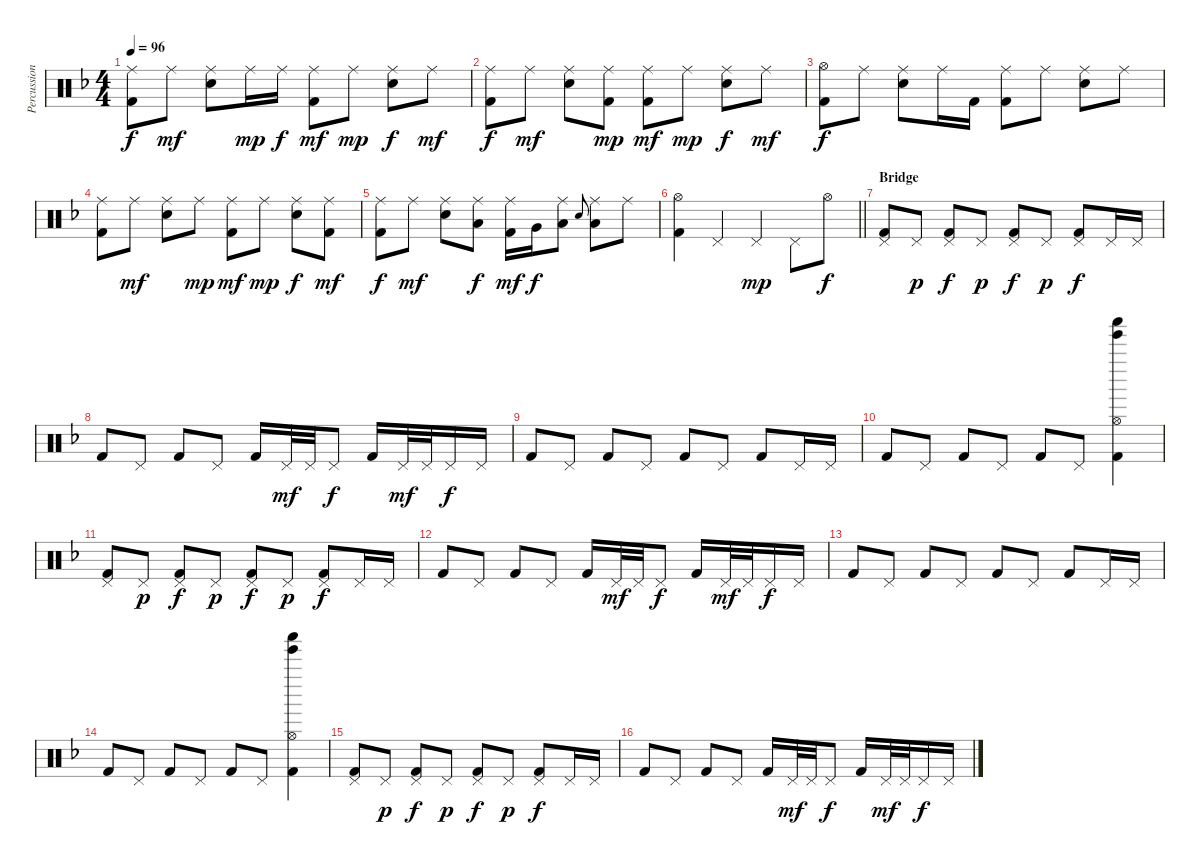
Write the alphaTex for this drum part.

\track ("Percussion" "Percussion") {instrument percussion}
\staff {score}
\articulation defaults
\ts (4 4)
\tempo 96
\clef neutral
\ks dminor
("Ride (middle)" "Kick (hit) 2").8{dy f} "Ride (middle)".8{dy mf} ("Ride (middle)" "Electric Snare (hit)").8 "Ride (middle)".16{dy mp} "Ride (middle)".16{dy f} ("Ride (middle)" "Kick (hit) 2").8{dy mf} "Ride (middle)".8{dy mp} ("Ride (middle)" "Electric Snare (hit)").8{dy f} "Ride (middle)".8{dy mf} |
("Ride (middle)" "Kick (hit) 2").8{dy f} "Ride (middle)".8{dy mf} ("Ride (middle)" "Electric Snare (hit)").8 ("Ride (middle)" "Kick (hit) 2").8{dy mp} ("Ride (middle)" "Kick (hit) 2").8{dy mf} "Ride (middle)".8{dy mp} ("Ride (middle)" "Electric Snare (hit)").8{dy f} "Ride (middle)".8{dy mf} |
("Hi-Hat (open)" "Kick (hit) 2").8{dy f} "Ride (middle)".8 ("Ride (middle)" "Electric Snare (hit)").8 "Ride (middle)".16 "Kick (hit) 2".16 ("Ride (middle)" "Kick (hit) 2").8 "Ride (middle)".8 ("Ride (middle)" "Electric Snare (hit)").8 "Ride (middle)".8 |
("Ride (middle)" "Kick (hit) 2").8 "Ride (middle)".8{dy mf} ("Ride (middle)" "Electric Snare (hit)").8 "Ride (middle)".8{dy mp} ("Ride (middle)" "Kick (hit) 2").8{dy mf} "Ride (middle)".8{dy mp} ("Ride (middle)" "Electric Snare (hit)").8{dy f} ("Ride (middle)" "Kick (hit) 2").8{dy mf} |
("Ride (middle)" "Kick (hit) 2").8{dy f} "Ride (middle)".8{dy mf} ("Ride (middle)" "Electric Snare (hit)").8 ("Ride (middle)" "Low Floor Tom (hit)").8{dy f} ("Ride (middle)" "Kick (hit) 2").16{dy mf} "Very Low Tom (hit)".16{dy f} ("Ride (middle)" "Low Floor Tom (hit)").8 "Electric Snare (hit)".8{gr onbeat} ("Ride (middle)" "Low Floor Tom (hit)").8 "Ride (middle)".8 |
\barLineRight lightlight
("Hi-Hat (open)" "Kick (hit) 2").4 "Pedal Hi-Hat (hit)".4 "Pedal Hi-Hat (hit)".4{dy mp} "Pedal Hi-Hat (hit)".8 "Hi-Hat (open)".8{dy f} |
\section ("" "Bridge")
("Pedal Hi-Hat (hit)" "Kick (hit) 2").8 "Pedal Hi-Hat (hit)".8{dy p} ("Pedal Hi-Hat (hit)" "Kick (hit) 2").8{dy f} "Pedal Hi-Hat (hit)".8{dy p} ("Pedal Hi-Hat (hit)" "Kick (hit) 2").8{dy f} "Pedal Hi-Hat (hit)".8{dy p} ("Pedal Hi-Hat (hit)" "Kick (hit) 2").8{dy f} "Pedal Hi-Hat (hit)".16 "Pedal Hi-Hat (hit)".16 |
"Kick (hit) 2".8 "Pedal Hi-Hat (hit)".8 "Kick (hit) 2".8 "Pedal Hi-Hat (hit)".8 "Kick (hit) 2".16 "Pedal Hi-Hat (hit)".32{dy mf} "Pedal Hi-Hat (hit)".32 "Pedal Hi-Hat (hit)".8{dy f} "Kick (hit) 2".16 "Pedal Hi-Hat (hit)".32{dy mf} "Pedal Hi-Hat (hit)".32 "Pedal Hi-Hat (hit)".16{dy f} "Pedal Hi-Hat (hit)".16 |
"Kick (hit) 2".8 "Pedal Hi-Hat (hit)".8 "Kick (hit) 2".8 "Pedal Hi-Hat (hit)".8 "Kick (hit) 2".8 "Pedal Hi-Hat (hit)".8 "Kick (hit) 2".8 "Pedal Hi-Hat (hit)".16 "Pedal Hi-Hat (hit)".16 |
"Kick (hit) 2".8 "Pedal Hi-Hat (hit)".8 "Kick (hit) 2".8 "Pedal Hi-Hat (hit)".8 "Kick (hit) 2".8 "Pedal Hi-Hat (hit)".8 ("Hi-Hat (open)" "Tinkle Bell (hit)" "Shaker (hit)" "Kick (hit) 2").4 |
("Pedal Hi-Hat (hit)" "Kick (hit) 2").8 "Pedal Hi-Hat (hit)".8{dy p} ("Pedal Hi-Hat (hit)" "Kick (hit) 2").8{dy f} "Pedal Hi-Hat (hit)".8{dy p} ("Pedal Hi-Hat (hit)" "Kick (hit) 2").8{dy f} "Pedal Hi-Hat (hit)".8{dy p} ("Pedal Hi-Hat (hit)" "Kick (hit) 2").8{dy f} "Pedal Hi-Hat (hit)".16 "Pedal Hi-Hat (hit)".16 |
"Kick (hit) 2".8 "Pedal Hi-Hat (hit)".8 "Kick (hit) 2".8 "Pedal Hi-Hat (hit)".8 "Kick (hit) 2".16 "Pedal Hi-Hat (hit)".32{dy mf} "Pedal Hi-Hat (hit)".32 "Pedal Hi-Hat (hit)".8{dy f} "Kick (hit) 2".16 "Pedal Hi-Hat (hit)".32{dy mf} "Pedal Hi-Hat (hit)".32 "Pedal Hi-Hat (hit)".16{dy f} "Pedal Hi-Hat (hit)".16 |
"Kick (hit) 2".8 "Pedal Hi-Hat (hit)".8 "Kick (hit) 2".8 "Pedal Hi-Hat (hit)".8 "Kick (hit) 2".8 "Pedal Hi-Hat (hit)".8 "Kick (hit) 2".8 "Pedal Hi-Hat (hit)".16 "Pedal Hi-Hat (hit)".16 |
"Kick (hit) 2".8 "Pedal Hi-Hat (hit)".8 "Kick (hit) 2".8 "Pedal Hi-Hat (hit)".8 "Kick (hit) 2".8 "Pedal Hi-Hat (hit)".8 ("Hi-Hat (open)" "Tinkle Bell (hit)" "Shaker (hit)" "Kick (hit) 2").4 |
("Pedal Hi-Hat (hit)" "Kick (hit) 2").8 "Pedal Hi-Hat (hit)".8{dy p} ("Pedal Hi-Hat (hit)" "Kick (hit) 2").8{dy f} "Pedal Hi-Hat (hit)".8{dy p} ("Pedal Hi-Hat (hit)" "Kick (hit) 2").8{dy f} "Pedal Hi-Hat (hit)".8{dy p} ("Pedal Hi-Hat (hit)" "Kick (hit) 2").8{dy f} "Pedal Hi-Hat (hit)".16 "Pedal Hi-Hat (hit)".16 |
"Kick (hit) 2".8 "Pedal Hi-Hat (hit)".8 "Kick (hit) 2".8 "Pedal Hi-Hat (hit)".8 "Kick (hit) 2".16 "Pedal Hi-Hat (hit)".32{dy mf} "Pedal Hi-Hat (hit)".32 "Pedal Hi-Hat (hit)".8{dy f} "Kick (hit) 2".16 "Pedal Hi-Hat (hit)".32{dy mf} "Pedal Hi-Hat (hit)".32 "Pedal Hi-Hat (hit)".16{dy f} "Pedal Hi-Hat (hit)".16
